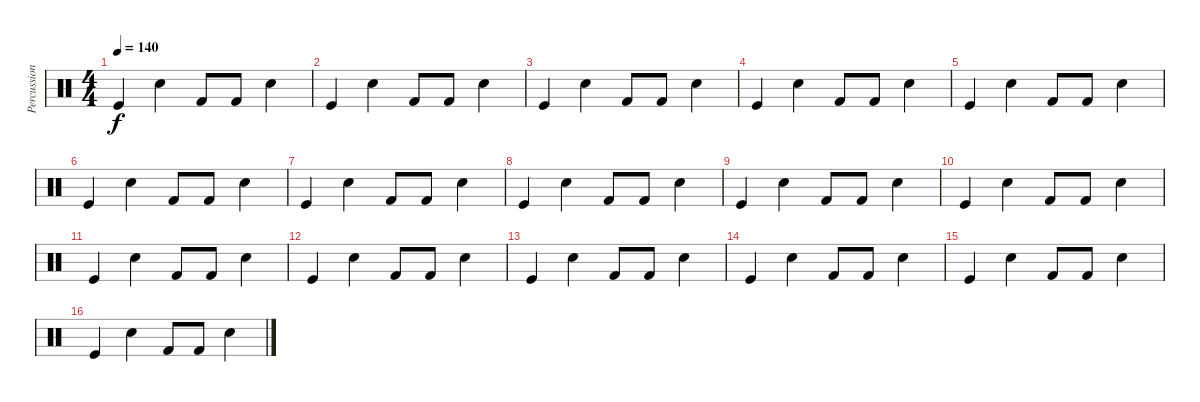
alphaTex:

\track ("Percussions" "Percussion") {instrument percussion}
\staff {score}
\articulation defaults
\ts (4 4)
\tempo 140
\clef neutral
\ks c "Kick (hit)".4{dy f} "Snare (hit) 2".4 "Kick (hit) 2".8 "Kick (hit) 2".8 "Snare (hit) 2".4
|
"Kick (hit)".4 "Snare (hit) 2".4 "Kick (hit) 2".8 "Kick (hit) 2".8 "Snare (hit) 2".4 |
"Kick (hit)".4 "Snare (hit) 2".4 "Kick (hit) 2".8 "Kick (hit) 2".8 "Snare (hit) 2".4 |
"Kick (hit)".4 "Snare (hit) 2".4 "Kick (hit) 2".8 "Kick (hit) 2".8 "Snare (hit) 2".4 |
"Kick (hit)".4 "Snare (hit) 2".4 "Kick (hit) 2".8 "Kick (hit) 2".8 "Snare (hit) 2".4 |
"Kick (hit)".4 "Snare (hit) 2".4 "Kick (hit) 2".8 "Kick (hit) 2".8 "Snare (hit) 2".4 |
"Kick (hit)".4 "Snare (hit) 2".4 "Kick (hit) 2".8 "Kick (hit) 2".8 "Snare (hit) 2".4 |
"Kick (hit)".4 "Snare (hit) 2".4 "Kick (hit) 2".8 "Kick (hit) 2".8 "Snare (hit) 2".4 |
"Kick (hit)".4 "Snare (hit) 2".4 "Kick (hit) 2".8 "Kick (hit) 2".8 "Snare (hit) 2".4 |
"Kick (hit)".4 "Snare (hit) 2".4 "Kick (hit) 2".8 "Kick (hit) 2".8 "Snare (hit) 2".4 |
"Kick (hit)".4 "Snare (hit) 2".4 "Kick (hit) 2".8 "Kick (hit) 2".8 "Snare (hit) 2".4 |
"Kick (hit)".4 "Snare (hit) 2".4 "Kick (hit) 2".8 "Kick (hit) 2".8 "Snare (hit) 2".4 |
"Kick (hit)".4 "Snare (hit) 2".4 "Kick (hit) 2".8 "Kick (hit) 2".8 "Snare (hit) 2".4 |
"Kick (hit)".4 "Snare (hit) 2".4 "Kick (hit) 2".8 "Kick (hit) 2".8 "Snare (hit) 2".4 |
"Kick (hit)".4 "Snare (hit) 2".4 "Kick (hit) 2".8 "Kick (hit) 2".8 "Snare (hit) 2".4 |
"Kick (hit)".4 "Snare (hit) 2".4 "Kick (hit) 2".8 "Kick (hit) 2".8 "Snare (hit) 2".4
